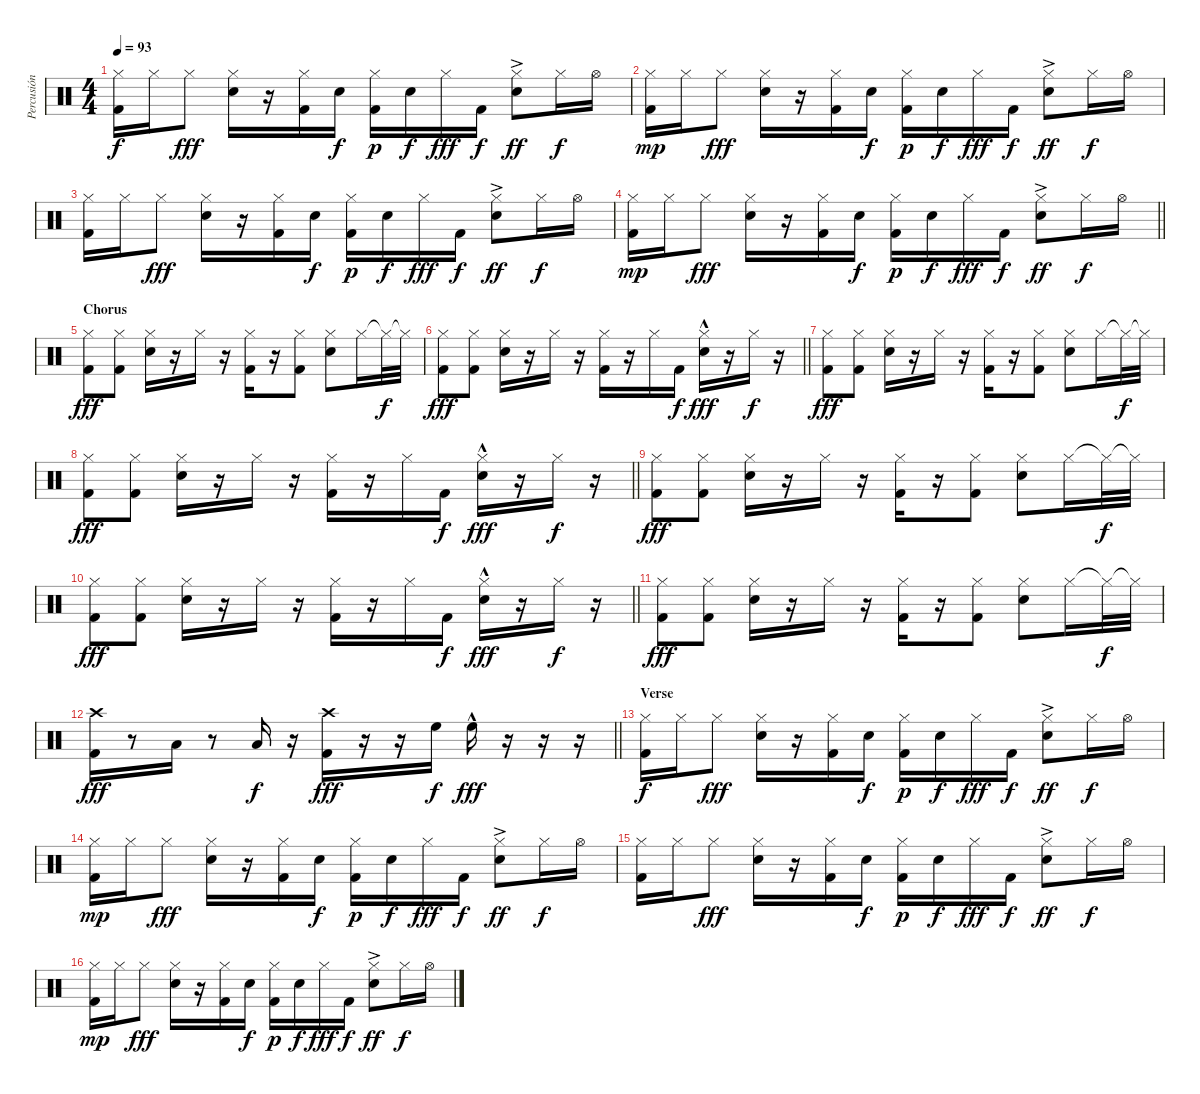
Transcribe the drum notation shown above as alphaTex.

\track ("Percusión" "Percusión") {instrument percussion}
\staff {score}
\articulation defaults
\ts (4 4)
\tempo 93
\clef neutral
\ks c
("Hi-Hat (closed)" "Kick (hit) 2").16{dy f} "Hi-Hat (closed)".16 "Hi-Hat (closed)".8{dy fff} ("Hi-Hat (closed)" "Snare (hit) 2").16 r.16 ("Hi-Hat (closed)" "Kick (hit) 2").16 "Snare (hit) 2".16{dy f} ("Hi-Hat (closed)" "Kick (hit) 2").16{dy p} "Snare (hit) 2".16{dy f} "Hi-Hat (closed)".16{dy fff} "Kick (hit) 2".16{dy f} ("Hi-Hat (closed)" "Snare (hit) 2"{ac}).8{dy ff} "Hi-Hat (closed)".16{dy f} "Hi-Hat (open)".16 |
("Hi-Hat (closed)" "Kick (hit) 2").16{dy mp} "Hi-Hat (closed)".16 "Hi-Hat (closed)".8{dy fff} ("Hi-Hat (closed)" "Snare (hit) 2").16 r.16 ("Hi-Hat (closed)" "Kick (hit) 2").16 "Snare (hit) 2".16{dy f} ("Hi-Hat (closed)" "Kick (hit) 2").16{dy p} "Snare (hit) 2".16{dy f} "Hi-Hat (closed)".16{dy fff} "Kick (hit) 2".16{dy f} ("Hi-Hat (closed)" "Snare (hit) 2"{ac}).8{dy ff} "Hi-Hat (closed)".16{dy f} "Hi-Hat (open)".16 |
("Hi-Hat (closed)" "Kick (hit) 2").16 "Hi-Hat (closed)".16 "Hi-Hat (closed)".8{dy fff} ("Hi-Hat (closed)" "Snare (hit) 2").16 r.16 ("Hi-Hat (closed)" "Kick (hit) 2").16 "Snare (hit) 2".16{dy f} ("Hi-Hat (closed)" "Kick (hit) 2").16{dy p} "Snare (hit) 2".16{dy f} "Hi-Hat (closed)".16{dy fff} "Kick (hit) 2".16{dy f} ("Hi-Hat (closed)" "Snare (hit) 2"{ac}).8{dy ff} "Hi-Hat (closed)".16{dy f} "Hi-Hat (open)".16 |
\barLineRight lightlight
("Hi-Hat (closed)" "Kick (hit) 2").16{dy mp} "Hi-Hat (closed)".16 "Hi-Hat (closed)".8{dy fff} ("Hi-Hat (closed)" "Snare (hit) 2").16 r.16 ("Hi-Hat (closed)" "Kick (hit) 2").16 "Snare (hit) 2".16{dy f} ("Hi-Hat (closed)" "Kick (hit) 2").16{dy p} "Snare (hit) 2".16{dy f} "Hi-Hat (closed)".16{dy fff} "Kick (hit) 2".16{dy f} ("Hi-Hat (closed)" "Snare (hit) 2"{ac}).8{dy ff} "Hi-Hat (closed)".16{dy f} "Hi-Hat (open)".16 |
\section ("" "Chorus")
("Hi-Hat (closed)" "Kick (hit) 2").8{dy fff} ("Hi-Hat (closed)" "Kick (hit) 2").8 ("Hi-Hat (closed)" "Snare (hit) 2").16 r.16 "Hi-Hat (closed)".16 r.16 ("Hi-Hat (closed)" "Kick (hit) 2").16 r.16 ("Hi-Hat (closed)" "Kick (hit) 2").8 ("Hi-Hat (closed)" "Snare (hit) 2").8 "Hi-Hat (closed)".16 "Hi-Hat (closed)"{t}.32{dy f} "Hi-Hat (closed)"{t}.32 |
\barLineRight lightlight
("Hi-Hat (closed)" "Kick (hit) 2").8{dy fff} ("Hi-Hat (closed)" "Kick (hit) 2").8 ("Hi-Hat (closed)" "Snare (hit) 2").16 r.16 "Hi-Hat (closed)".16 r.16 ("Hi-Hat (closed)" "Kick (hit) 2").16 r.16 "Hi-Hat (closed)".16 "Kick (hit) 2".16{dy f} ("Hi-Hat (closed)" "Snare (hit) 2"{hac}).16{dy fff} r.16 "Hi-Hat (closed)".16{dy f} r.16 |
("Hi-Hat (closed)" "Kick (hit) 2").8{dy fff} ("Hi-Hat (closed)" "Kick (hit) 2").8 ("Hi-Hat (closed)" "Snare (hit) 2").16 r.16 "Hi-Hat (closed)".16 r.16 ("Hi-Hat (closed)" "Kick (hit) 2").16 r.16 ("Hi-Hat (closed)" "Kick (hit) 2").8 ("Hi-Hat (closed)" "Snare (hit) 2").8 "Hi-Hat (closed)".16 "Hi-Hat (closed)"{t}.32{dy f} "Hi-Hat (closed)"{t}.32 |
\barLineRight lightlight
("Hi-Hat (closed)" "Kick (hit) 2").8{dy fff} ("Hi-Hat (closed)" "Kick (hit) 2").8 ("Hi-Hat (closed)" "Snare (hit) 2").16 r.16 "Hi-Hat (closed)".16 r.16 ("Hi-Hat (closed)" "Kick (hit) 2").16 r.16 "Hi-Hat (closed)".16 "Kick (hit) 2".16{dy f} ("Hi-Hat (closed)" "Snare (hit) 2"{hac}).16{dy fff} r.16 "Hi-Hat (closed)".16{dy f} r.16 |
("Hi-Hat (closed)" "Kick (hit) 2").8{dy fff} ("Hi-Hat (closed)" "Kick (hit) 2").8 ("Hi-Hat (closed)" "Snare (hit) 2").16 r.16 "Hi-Hat (closed)".16 r.16 ("Hi-Hat (closed)" "Kick (hit) 2").16 r.16 ("Hi-Hat (closed)" "Kick (hit) 2").8 ("Hi-Hat (closed)" "Snare (hit) 2").8 "Hi-Hat (closed)".16 "Hi-Hat (closed)"{t}.32{dy f} "Hi-Hat (closed)"{t}.32 |
\barLineRight lightlight
("Hi-Hat (closed)" "Kick (hit) 2").8{dy fff} ("Hi-Hat (closed)" "Kick (hit) 2").8 ("Hi-Hat (closed)" "Snare (hit) 2").16 r.16 "Hi-Hat (closed)".16 r.16 ("Hi-Hat (closed)" "Kick (hit) 2").16 r.16 "Hi-Hat (closed)".16 "Kick (hit) 2".16{dy f} ("Hi-Hat (closed)" "Snare (hit) 2"{hac}).16{dy fff} r.16 "Hi-Hat (closed)".16{dy f} r.16 |
("Hi-Hat (closed)" "Kick (hit) 2").8{dy fff} ("Hi-Hat (closed)" "Kick (hit) 2").8 ("Hi-Hat (closed)" "Snare (hit) 2").16 r.16 "Hi-Hat (closed)".16 r.16 ("Hi-Hat (closed)" "Kick (hit) 2").16 r.16 ("Hi-Hat (closed)" "Kick (hit) 2").8 ("Hi-Hat (closed)" "Snare (hit) 2").8 "Hi-Hat (closed)".16 "Hi-Hat (closed)"{t}.32{dy f} "Hi-Hat (closed)"{t}.32 |
\barLineRight lightlight
("Crash high (hit)" "Kick (hit) 2").16{dy fff} r.8 "Low Tom (hit)".16 r.8 "Low Tom (hit)".16{dy f} r.16 ("Crash high (hit)" "Kick (hit) 2").16{dy fff} r.16 r.16 "High Floor Tom (hit)".16{dy f} "High Floor Tom (hit)"{hac}.16{dy fff} r.16 r.16 r.16 |
\section ("" "Verse")
("Hi-Hat (closed)" "Kick (hit) 2").16{dy f} "Hi-Hat (closed)".16 "Hi-Hat (closed)".8{dy fff} ("Hi-Hat (closed)" "Snare (hit) 2").16 r.16 ("Hi-Hat (closed)" "Kick (hit) 2").16 "Snare (hit) 2".16{dy f} ("Hi-Hat (closed)" "Kick (hit) 2").16{dy p} "Snare (hit) 2".16{dy f} "Hi-Hat (closed)".16{dy fff} "Kick (hit) 2".16{dy f} ("Hi-Hat (closed)" "Snare (hit) 2"{ac}).8{dy ff} "Hi-Hat (closed)".16{dy f} "Hi-Hat (open)".16 |
("Hi-Hat (closed)" "Kick (hit) 2").16{dy mp} "Hi-Hat (closed)".16 "Hi-Hat (closed)".8{dy fff} ("Hi-Hat (closed)" "Snare (hit) 2").16 r.16 ("Hi-Hat (closed)" "Kick (hit) 2").16 "Snare (hit) 2".16{dy f} ("Hi-Hat (closed)" "Kick (hit) 2").16{dy p} "Snare (hit) 2".16{dy f} "Hi-Hat (closed)".16{dy fff} "Kick (hit) 2".16{dy f} ("Hi-Hat (closed)" "Snare (hit) 2"{ac}).8{dy ff} "Hi-Hat (closed)".16{dy f} "Hi-Hat (open)".16 |
("Hi-Hat (closed)" "Kick (hit) 2").16 "Hi-Hat (closed)".16 "Hi-Hat (closed)".8{dy fff} ("Hi-Hat (closed)" "Snare (hit) 2").16 r.16 ("Hi-Hat (closed)" "Kick (hit) 2").16 "Snare (hit) 2".16{dy f} ("Hi-Hat (closed)" "Kick (hit) 2").16{dy p} "Snare (hit) 2".16{dy f} "Hi-Hat (closed)".16{dy fff} "Kick (hit) 2".16{dy f} ("Hi-Hat (closed)" "Snare (hit) 2"{ac}).8{dy ff} "Hi-Hat (closed)".16{dy f} "Hi-Hat (open)".16 |
("Hi-Hat (closed)" "Kick (hit) 2").16{dy mp} "Hi-Hat (closed)".16 "Hi-Hat (closed)".8{dy fff} ("Hi-Hat (closed)" "Snare (hit) 2").16 r.16 ("Hi-Hat (closed)" "Kick (hit) 2").16 "Snare (hit) 2".16{dy f} ("Hi-Hat (closed)" "Kick (hit) 2").16{dy p} "Snare (hit) 2".16{dy f} "Hi-Hat (closed)".16{dy fff} "Kick (hit) 2".16{dy f} ("Hi-Hat (closed)" "Snare (hit) 2"{ac}).8{dy ff} "Hi-Hat (closed)".16{dy f} "Hi-Hat (open)".16
